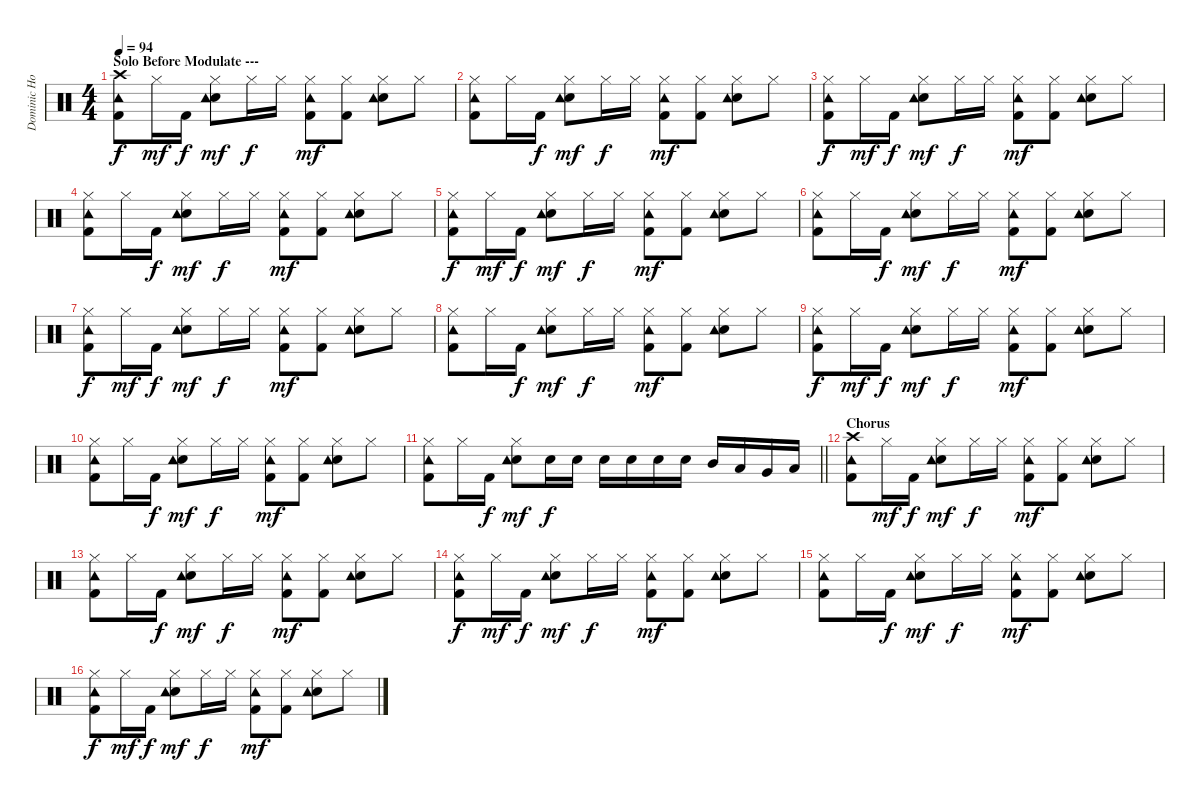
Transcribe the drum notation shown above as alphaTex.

\track ("Dominic Howard - Drums" "Dominic Ho") {instrument percussion}
\staff {score}
\articulation defaults
\ts (4 4)
\section ("" "Solo Before Modulate ---")
\tempo 94
\clef neutral
\ks c
("Kick (hit) 2" "Crash high (hit)" "Tambourine (hit)").8{dy f} "Hi-Hat (closed)".16{dy mf} "Kick (hit) 2".16{dy f} ("Hi-Hat (closed)" "Electric Snare (hit)" "Tambourine (hit)").8{dy mf} "Hi-Hat (closed)".16{dy f} "Hi-Hat (closed)".16 ("Hi-Hat (closed)" "Kick (hit) 2" "Tambourine (hit)").8{dy mf} ("Hi-Hat (closed)" "Kick (hit) 2").8 ("Hi-Hat (closed)" "Electric Snare (hit)" "Tambourine (hit)").8 "Hi-Hat (closed)".8 |
("Kick (hit) 2" "Hi-Hat (closed)" "Tambourine (hit)").8 "Hi-Hat (closed)".16 "Kick (hit) 2".16{dy f} ("Hi-Hat (closed)" "Electric Snare (hit)" "Tambourine (hit)").8{dy mf} "Hi-Hat (closed)".16{dy f} "Hi-Hat (closed)".16 ("Hi-Hat (closed)" "Kick (hit) 2" "Tambourine (hit)").8{dy mf} ("Hi-Hat (closed)" "Kick (hit) 2").8 ("Hi-Hat (closed)" "Electric Snare (hit)" "Tambourine (hit)").8 "Hi-Hat (closed)".8 |
("Kick (hit) 2" "Hi-Hat (closed)" "Tambourine (hit)").8{dy f} "Hi-Hat (closed)".16{dy mf} "Kick (hit) 2".16{dy f} ("Hi-Hat (closed)" "Electric Snare (hit)" "Tambourine (hit)").8{dy mf} "Hi-Hat (closed)".16{dy f} "Hi-Hat (closed)".16 ("Hi-Hat (closed)" "Kick (hit) 2" "Tambourine (hit)").8{dy mf} ("Hi-Hat (closed)" "Kick (hit) 2").8 ("Hi-Hat (closed)" "Electric Snare (hit)" "Tambourine (hit)").8 "Hi-Hat (closed)".8 |
("Kick (hit) 2" "Hi-Hat (closed)" "Tambourine (hit)").8 "Hi-Hat (closed)".16 "Kick (hit) 2".16{dy f} ("Hi-Hat (closed)" "Electric Snare (hit)" "Tambourine (hit)").8{dy mf} "Hi-Hat (closed)".16{dy f} "Hi-Hat (closed)".16 ("Hi-Hat (closed)" "Kick (hit) 2" "Tambourine (hit)").8{dy mf} ("Hi-Hat (closed)" "Kick (hit) 2").8 ("Hi-Hat (closed)" "Electric Snare (hit)" "Tambourine (hit)").8 "Hi-Hat (closed)".8 |
("Kick (hit) 2" "Hi-Hat (closed)" "Tambourine (hit)").8{dy f} "Hi-Hat (closed)".16{dy mf} "Kick (hit) 2".16{dy f} ("Hi-Hat (closed)" "Electric Snare (hit)" "Tambourine (hit)").8{dy mf} "Hi-Hat (closed)".16{dy f} "Hi-Hat (closed)".16 ("Hi-Hat (closed)" "Kick (hit) 2" "Tambourine (hit)").8{dy mf} ("Hi-Hat (closed)" "Kick (hit) 2").8 ("Hi-Hat (closed)" "Electric Snare (hit)" "Tambourine (hit)").8 "Hi-Hat (closed)".8 |
("Kick (hit) 2" "Hi-Hat (closed)" "Tambourine (hit)").8 "Hi-Hat (closed)".16 "Kick (hit) 2".16{dy f} ("Hi-Hat (closed)" "Electric Snare (hit)" "Tambourine (hit)").8{dy mf} "Hi-Hat (closed)".16{dy f} "Hi-Hat (closed)".16 ("Hi-Hat (closed)" "Kick (hit) 2" "Tambourine (hit)").8{dy mf} ("Hi-Hat (closed)" "Kick (hit) 2").8 ("Hi-Hat (closed)" "Electric Snare (hit)" "Tambourine (hit)").8 "Hi-Hat (closed)".8 |
("Kick (hit) 2" "Hi-Hat (closed)" "Tambourine (hit)").8{dy f} "Hi-Hat (closed)".16{dy mf} "Kick (hit) 2".16{dy f} ("Hi-Hat (closed)" "Electric Snare (hit)" "Tambourine (hit)").8{dy mf} "Hi-Hat (closed)".16{dy f} "Hi-Hat (closed)".16 ("Hi-Hat (closed)" "Kick (hit) 2" "Tambourine (hit)").8{dy mf} ("Hi-Hat (closed)" "Kick (hit) 2").8 ("Hi-Hat (closed)" "Electric Snare (hit)" "Tambourine (hit)").8 "Hi-Hat (closed)".8 |
("Kick (hit) 2" "Hi-Hat (closed)" "Tambourine (hit)").8 "Hi-Hat (closed)".16 "Kick (hit) 2".16{dy f} ("Hi-Hat (closed)" "Electric Snare (hit)" "Tambourine (hit)").8{dy mf} "Hi-Hat (closed)".16{dy f} "Hi-Hat (closed)".16 ("Hi-Hat (closed)" "Kick (hit) 2" "Tambourine (hit)").8{dy mf} ("Hi-Hat (closed)" "Kick (hit) 2").8 ("Hi-Hat (closed)" "Electric Snare (hit)" "Tambourine (hit)").8 "Hi-Hat (closed)".8 |
("Kick (hit) 2" "Hi-Hat (closed)" "Tambourine (hit)").8{dy f} "Hi-Hat (closed)".16{dy mf} "Kick (hit) 2".16{dy f} ("Hi-Hat (closed)" "Electric Snare (hit)" "Tambourine (hit)").8{dy mf} "Hi-Hat (closed)".16{dy f} "Hi-Hat (closed)".16 ("Hi-Hat (closed)" "Kick (hit) 2" "Tambourine (hit)").8{dy mf} ("Hi-Hat (closed)" "Kick (hit) 2").8 ("Hi-Hat (closed)" "Electric Snare (hit)" "Tambourine (hit)").8 "Hi-Hat (closed)".8 |
("Kick (hit) 2" "Hi-Hat (closed)" "Tambourine (hit)").8 "Hi-Hat (closed)".16 "Kick (hit) 2".16{dy f} ("Hi-Hat (closed)" "Electric Snare (hit)" "Tambourine (hit)").8{dy mf} "Hi-Hat (closed)".16{dy f} "Hi-Hat (closed)".16 ("Hi-Hat (closed)" "Kick (hit) 2" "Tambourine (hit)").8{dy mf} ("Hi-Hat (closed)" "Kick (hit) 2").8 ("Hi-Hat (closed)" "Electric Snare (hit)" "Tambourine (hit)").8 "Hi-Hat (closed)".8 |
\barLineRight lightlight
("Kick (hit) 2" "Hi-Hat (closed)" "Tambourine (hit)").8 "Hi-Hat (closed)".16 "Kick (hit) 2".16{dy f} ("Hi-Hat (closed)" "Electric Snare (hit)" "Tambourine (hit)").8{dy mf} "Electric Snare (hit)".16{dy f} "Electric Snare (hit)".16 "Electric Snare (hit)".16 "Electric Snare (hit)".16 "Electric Snare (hit)".16 "Electric Snare (hit)".16 "Mid Tom (hit)".16 "Low Tom (hit)".16 "Very Low Tom (hit)".16 "Low Floor Tom (hit)".16 |
\section ("" "Chorus")
("Kick (hit) 2" "Crash high (hit)" "Tambourine (hit)").8 "Hi-Hat (closed)".16{dy mf} "Kick (hit) 2".16{dy f} ("Hi-Hat (closed)" "Electric Snare (hit)" "Tambourine (hit)").8{dy mf} "Hi-Hat (closed)".16{dy f} "Hi-Hat (closed)".16 ("Hi-Hat (closed)" "Kick (hit) 2" "Tambourine (hit)").8{dy mf} ("Hi-Hat (closed)" "Kick (hit) 2").8 ("Hi-Hat (closed)" "Electric Snare (hit)" "Tambourine (hit)").8 "Hi-Hat (closed)".8 |
("Kick (hit) 2" "Hi-Hat (closed)" "Tambourine (hit)").8 "Hi-Hat (closed)".16 "Kick (hit) 2".16{dy f} ("Hi-Hat (closed)" "Electric Snare (hit)" "Tambourine (hit)").8{dy mf} "Hi-Hat (closed)".16{dy f} "Hi-Hat (closed)".16 ("Hi-Hat (closed)" "Kick (hit) 2" "Tambourine (hit)").8{dy mf} ("Hi-Hat (closed)" "Kick (hit) 2").8 ("Hi-Hat (closed)" "Electric Snare (hit)" "Tambourine (hit)").8 "Hi-Hat (closed)".8 |
("Kick (hit) 2" "Hi-Hat (closed)" "Tambourine (hit)").8{dy f} "Hi-Hat (closed)".16{dy mf} "Kick (hit) 2".16{dy f} ("Hi-Hat (closed)" "Electric Snare (hit)" "Tambourine (hit)").8{dy mf} "Hi-Hat (closed)".16{dy f} "Hi-Hat (closed)".16 ("Hi-Hat (closed)" "Kick (hit) 2" "Tambourine (hit)").8{dy mf} ("Hi-Hat (closed)" "Kick (hit) 2").8 ("Hi-Hat (closed)" "Electric Snare (hit)" "Tambourine (hit)").8 "Hi-Hat (closed)".8 |
("Kick (hit) 2" "Hi-Hat (closed)" "Tambourine (hit)").8 "Hi-Hat (closed)".16 "Kick (hit) 2".16{dy f} ("Hi-Hat (closed)" "Electric Snare (hit)" "Tambourine (hit)").8{dy mf} "Hi-Hat (closed)".16{dy f} "Hi-Hat (closed)".16 ("Hi-Hat (closed)" "Kick (hit) 2" "Tambourine (hit)").8{dy mf} ("Hi-Hat (closed)" "Kick (hit) 2").8 ("Hi-Hat (closed)" "Electric Snare (hit)" "Tambourine (hit)").8 "Hi-Hat (closed)".8 |
("Kick (hit) 2" "Hi-Hat (closed)" "Tambourine (hit)").8{dy f} "Hi-Hat (closed)".16{dy mf} "Kick (hit) 2".16{dy f} ("Hi-Hat (closed)" "Electric Snare (hit)" "Tambourine (hit)").8{dy mf} "Hi-Hat (closed)".16{dy f} "Hi-Hat (closed)".16 ("Hi-Hat (closed)" "Kick (hit) 2" "Tambourine (hit)").8{dy mf} ("Hi-Hat (closed)" "Kick (hit) 2").8 ("Hi-Hat (closed)" "Electric Snare (hit)" "Tambourine (hit)").8 "Hi-Hat (closed)".8
